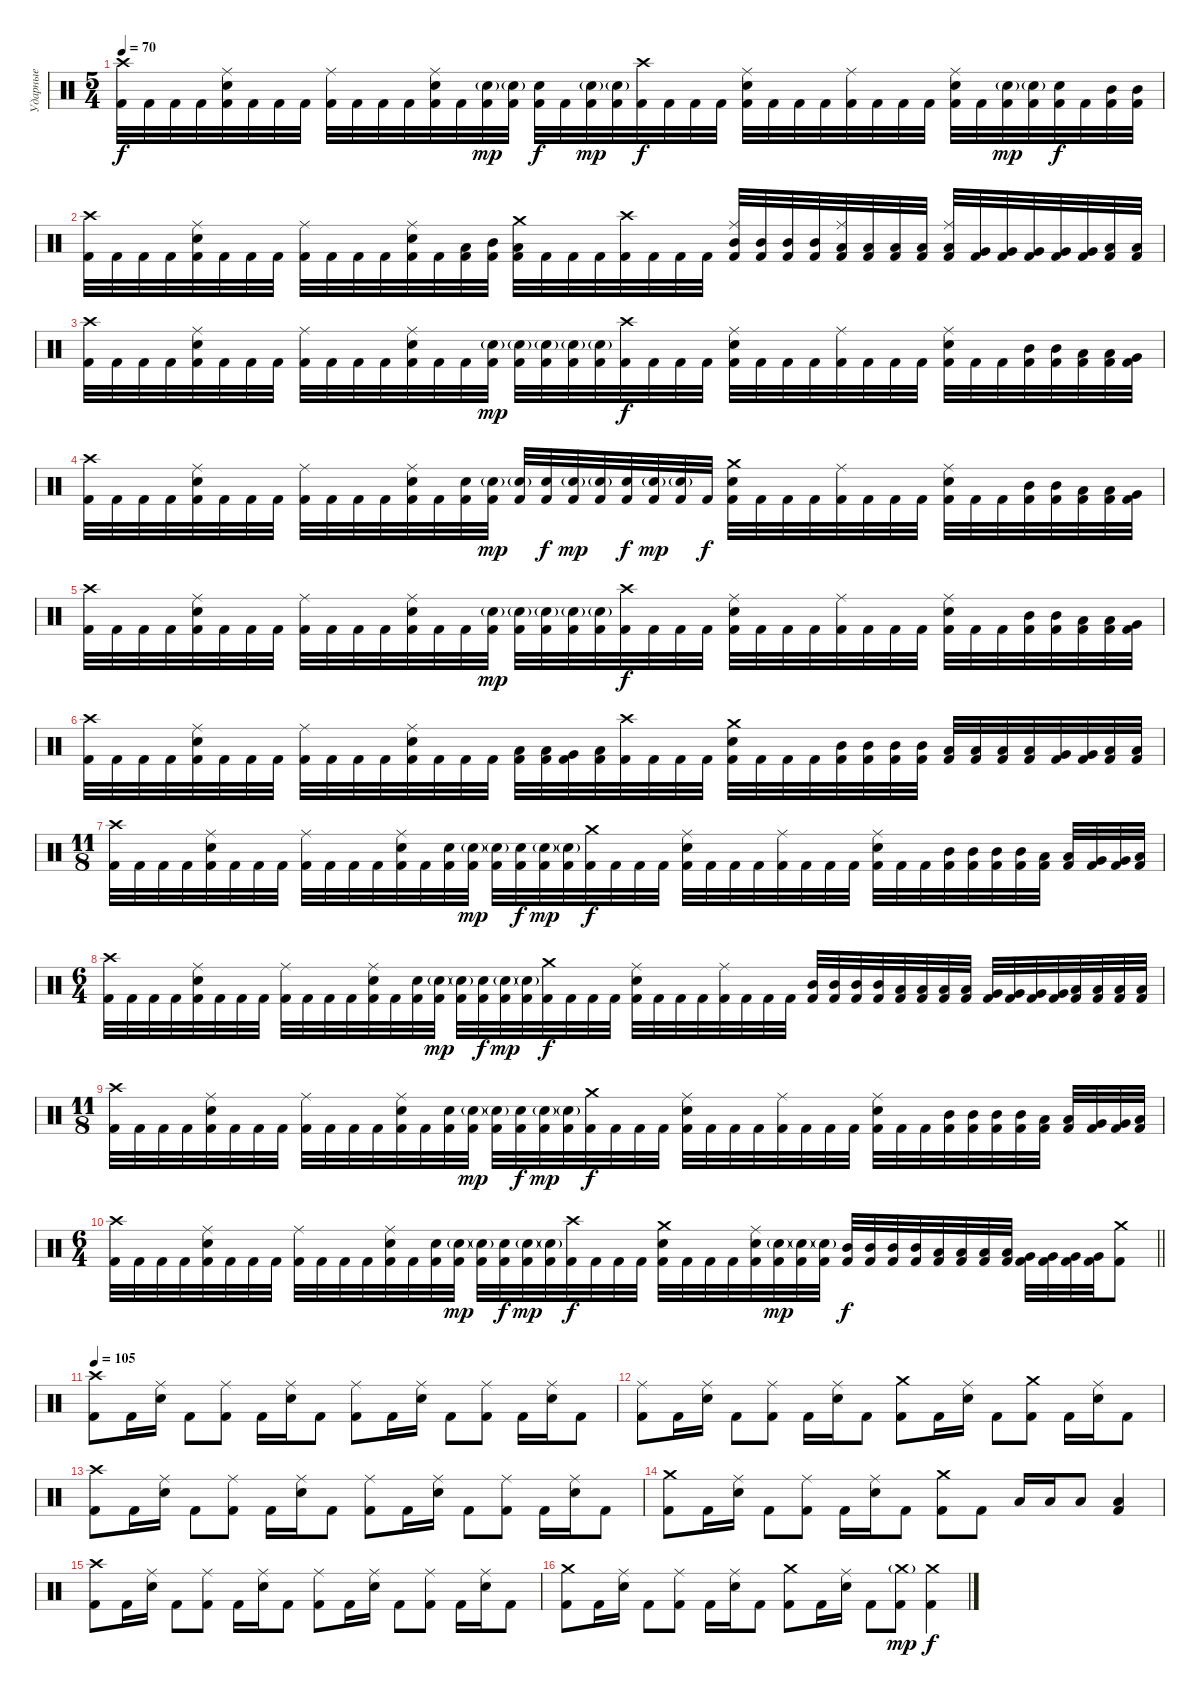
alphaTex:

\track ("Ударные" "Ударные") {instrument percussion}
\staff {score}
\articulation defaults
\ts (5 4)
\tempo 70
\clef neutral
\ks c
("Kick (hit) 2" "Crash high (hit)").32{dy f} "Kick (hit) 2".32 "Kick (hit) 2".32 "Kick (hit) 2".32 ("Kick (hit) 2" "Electric Snare (hit)" "Ride (middle)").32 "Kick (hit) 2".32 "Kick (hit) 2".32 "Kick (hit) 2".32 ("Kick (hit) 2" "Ride (middle)").32 "Kick (hit) 2".32 "Kick (hit) 2".32 "Kick (hit) 2".32 ("Kick (hit) 2" "Electric Snare (hit)" "Ride (middle)").32 "Kick (hit) 2".32 ("Kick (hit) 2" "Electric Snare (hit)"{g}).32{dy mp} ("Kick (hit) 2" "Electric Snare (hit)"{g}).32 ("Kick (hit) 2" "Electric Snare (hit)").32{dy f} "Kick (hit) 2".32 ("Kick (hit) 2" "Electric Snare (hit)"{g}).32{dy mp} ("Kick (hit) 2" "Electric Snare (hit)"{g}).32 ("Kick (hit) 2" "Crash high (hit)").32{dy f} "Kick (hit) 2".32 "Kick (hit) 2".32 "Kick (hit) 2".32 ("Kick (hit) 2" "Electric Snare (hit)" "Ride (middle)").32 "Kick (hit) 2".32 "Kick (hit) 2".32 "Kick (hit) 2".32 ("Kick (hit) 2" "Ride (middle)").32 "Kick (hit) 2".32 "Kick (hit) 2".32 "Kick (hit) 2".32 ("Kick (hit) 2" "Electric Snare (hit)" "Ride (middle)").32 "Kick (hit) 2".32 ("Kick (hit) 2" "Electric Snare (hit)"{g}).32{dy mp} ("Kick (hit) 2" "Electric Snare (hit)"{g}).32 ("Kick (hit) 2" "Electric Snare (hit)").32{dy f} "Kick (hit) 2".32 ("Kick (hit) 2" "Mid Tom (hit)").32 ("Kick (hit) 2" "Mid Tom (hit)").32 |
("Kick (hit) 2" "Crash high (hit)").32 "Kick (hit) 2".32 "Kick (hit) 2".32 "Kick (hit) 2".32 ("Kick (hit) 2" "Electric Snare (hit)" "Ride (middle)").32 "Kick (hit) 2".32 "Kick (hit) 2".32 "Kick (hit) 2".32 ("Kick (hit) 2" "Ride (middle)").32 "Kick (hit) 2".32 "Kick (hit) 2".32 "Kick (hit) 2".32 ("Kick (hit) 2" "Electric Snare (hit)" "Ride (middle)").32 "Kick (hit) 2".32 ("Kick (hit) 2" "Low Tom (hit)").32 ("Kick (hit) 2" "Mid Tom (hit)").32 ("Kick (hit) 2" "Low Tom (hit)" "Crash medium (hit)").32 "Kick (hit) 2".32 "Kick (hit) 2".32 "Kick (hit) 2".32 ("Kick (hit) 2" "Crash high (hit)").32 "Kick (hit) 2".32 "Kick (hit) 2".32 "Kick (hit) 2".32 ("Kick (hit) 2" "Mid Tom (hit)" "Ride (middle)").32 ("Kick (hit) 2" "Mid Tom (hit)").32 ("Kick (hit) 2" "Mid Tom (hit)").32 ("Kick (hit) 2" "Mid Tom (hit)").32 ("Kick (hit) 2" "Low Tom (hit)" "Ride (middle)").32 ("Kick (hit) 2" "Low Tom (hit)").32 ("Kick (hit) 2" "Low Tom (hit)").32 ("Kick (hit) 2" "Low Tom (hit)").32 ("Kick (hit) 2" "Low Tom (hit)" "Ride (middle)").32 ("Kick (hit) 2" "Very Low Tom (hit)").32 ("Kick (hit) 2" "Very Low Tom (hit)").32 ("Kick (hit) 2" "Very Low Tom (hit)").32 ("Kick (hit) 2" "Very Low Tom (hit)").32 ("Kick (hit) 2" "Very Low Tom (hit)").32 ("Kick (hit) 2" "Low Floor Tom (hit)").32 ("Kick (hit) 2" "Low Floor Tom (hit)").32 |
("Kick (hit) 2" "Crash high (hit)").32 "Kick (hit) 2".32 "Kick (hit) 2".32 "Kick (hit) 2".32 ("Kick (hit) 2" "Electric Snare (hit)" "Ride (middle)").32 "Kick (hit) 2".32 "Kick (hit) 2".32 "Kick (hit) 2".32 ("Kick (hit) 2" "Ride (middle)").32 "Kick (hit) 2".32 "Kick (hit) 2".32 "Kick (hit) 2".32 ("Kick (hit) 2" "Electric Snare (hit)" "Ride (middle)").32 "Kick (hit) 2".32 "Kick (hit) 2".32 ("Kick (hit) 2" "Electric Snare (hit)"{g}).32{dy mp} ("Kick (hit) 2" "Electric Snare (hit)"{g}).32 ("Kick (hit) 2" "Electric Snare (hit)"{g}).32 ("Kick (hit) 2" "Electric Snare (hit)"{g}).32 ("Kick (hit) 2" "Electric Snare (hit)"{g}).32 ("Kick (hit) 2" "Crash high (hit)").32{dy f} "Kick (hit) 2".32 "Kick (hit) 2".32 "Kick (hit) 2".32 ("Kick (hit) 2" "Electric Snare (hit)" "Ride (middle)").32 "Kick (hit) 2".32 "Kick (hit) 2".32 "Kick (hit) 2".32 ("Kick (hit) 2" "Ride (middle)").32 "Kick (hit) 2".32 "Kick (hit) 2".32 "Kick (hit) 2".32 ("Kick (hit) 2" "Electric Snare (hit)" "Ride (middle)").32 "Kick (hit) 2".32 "Kick (hit) 2".32 ("Kick (hit) 2" "Mid Tom (hit)").32 ("Kick (hit) 2" "Mid Tom (hit)").32 ("Kick (hit) 2" "Low Tom (hit)").32 ("Kick (hit) 2" "Low Tom (hit)").32 ("Kick (hit) 2" "Very Low Tom (hit)").32 |
("Kick (hit) 2" "Crash high (hit)").32 "Kick (hit) 2".32 "Kick (hit) 2".32 "Kick (hit) 2".32 ("Kick (hit) 2" "Electric Snare (hit)" "Ride (middle)").32 "Kick (hit) 2".32 "Kick (hit) 2".32 "Kick (hit) 2".32 ("Kick (hit) 2" "Ride (middle)").32 "Kick (hit) 2".32 "Kick (hit) 2".32 "Kick (hit) 2".32 ("Kick (hit) 2" "Electric Snare (hit)" "Ride (middle)").32 "Kick (hit) 2".32 ("Kick (hit) 2" "Electric Snare (hit)").32 ("Kick (hit) 2" "Electric Snare (hit)"{g}).32{dy mp} ("Kick (hit) 2" "Electric Snare (hit)"{g}).32 ("Kick (hit) 2" "Electric Snare (hit)").32{dy f} ("Kick (hit) 2" "Electric Snare (hit)"{g}).32{dy mp} ("Kick (hit) 2" "Electric Snare (hit)"{g}).32 ("Kick (hit) 2" "Electric Snare (hit)").32{dy f} ("Kick (hit) 2" "Electric Snare (hit)"{g}).32{dy mp} ("Kick (hit) 2" "Electric Snare (hit)"{g}).32 "Kick (hit) 2".32{dy f} ("Kick (hit) 2" "Electric Snare (hit)" "Crash medium (hit)").32 "Kick (hit) 2".32 "Kick (hit) 2".32 "Kick (hit) 2".32 ("Kick (hit) 2" "Ride (middle)").32 "Kick (hit) 2".32 "Kick (hit) 2".32 "Kick (hit) 2".32 ("Kick (hit) 2" "Electric Snare (hit)" "Ride (middle)").32 "Kick (hit) 2".32 "Kick (hit) 2".32 ("Kick (hit) 2" "Mid Tom (hit)").32 ("Kick (hit) 2" "Mid Tom (hit)").32 ("Kick (hit) 2" "Low Tom (hit)").32 ("Kick (hit) 2" "Low Tom (hit)").32 ("Kick (hit) 2" "Very Low Tom (hit)").32 |
("Kick (hit) 2" "Crash high (hit)").32 "Kick (hit) 2".32 "Kick (hit) 2".32 "Kick (hit) 2".32 ("Kick (hit) 2" "Electric Snare (hit)" "Ride (middle)").32 "Kick (hit) 2".32 "Kick (hit) 2".32 "Kick (hit) 2".32 ("Kick (hit) 2" "Ride (middle)").32 "Kick (hit) 2".32 "Kick (hit) 2".32 "Kick (hit) 2".32 ("Kick (hit) 2" "Electric Snare (hit)" "Ride (middle)").32 "Kick (hit) 2".32 "Kick (hit) 2".32 ("Kick (hit) 2" "Electric Snare (hit)"{g}).32{dy mp} ("Kick (hit) 2" "Electric Snare (hit)"{g}).32 ("Kick (hit) 2" "Electric Snare (hit)"{g}).32 ("Kick (hit) 2" "Electric Snare (hit)"{g}).32 ("Kick (hit) 2" "Electric Snare (hit)"{g}).32 ("Kick (hit) 2" "Crash high (hit)").32{dy f} "Kick (hit) 2".32 "Kick (hit) 2".32 "Kick (hit) 2".32 ("Kick (hit) 2" "Electric Snare (hit)" "Ride (middle)").32 "Kick (hit) 2".32 "Kick (hit) 2".32 "Kick (hit) 2".32 ("Kick (hit) 2" "Ride (middle)").32 "Kick (hit) 2".32 "Kick (hit) 2".32 "Kick (hit) 2".32 ("Kick (hit) 2" "Electric Snare (hit)" "Ride (middle)").32 "Kick (hit) 2".32 "Kick (hit) 2".32 ("Kick (hit) 2" "Mid Tom (hit)").32 ("Kick (hit) 2" "Mid Tom (hit)").32 ("Kick (hit) 2" "Low Tom (hit)").32 ("Kick (hit) 2" "Low Tom (hit)").32 ("Kick (hit) 2" "Very Low Tom (hit)").32 |
("Kick (hit) 2" "Crash high (hit)").32 "Kick (hit) 2".32 "Kick (hit) 2".32 "Kick (hit) 2".32 ("Kick (hit) 2" "Electric Snare (hit)" "Ride (middle)").32 "Kick (hit) 2".32 "Kick (hit) 2".32 "Kick (hit) 2".32 ("Kick (hit) 2" "Ride (middle)").32 "Kick (hit) 2".32 "Kick (hit) 2".32 "Kick (hit) 2".32 ("Kick (hit) 2" "Electric Snare (hit)" "Ride (middle)").32 "Kick (hit) 2".32 "Kick (hit) 2".32 "Kick (hit) 2".32 ("Kick (hit) 2" "Low Tom (hit)").32 ("Kick (hit) 2" "Low Tom (hit)").32 ("Kick (hit) 2" "Very Low Tom (hit)").32 ("Kick (hit) 2" "Low Floor Tom (hit)").32 ("Kick (hit) 2" "Crash high (hit)").32 "Kick (hit) 2".32 "Kick (hit) 2".32 "Kick (hit) 2".32 ("Kick (hit) 2" "Electric Snare (hit)" "Crash medium (hit)").32 "Kick (hit) 2".32 "Kick (hit) 2".32 "Kick (hit) 2".32 ("Kick (hit) 2" "Mid Tom (hit)").32 ("Kick (hit) 2" "Mid Tom (hit)").32 ("Kick (hit) 2" "Mid Tom (hit)").32 ("Kick (hit) 2" "Mid Tom (hit)").32 ("Kick (hit) 2" "Low Tom (hit)").32 ("Kick (hit) 2" "Low Tom (hit)").32 ("Kick (hit) 2" "Low Tom (hit)").32 ("Kick (hit) 2" "Low Tom (hit)").32 ("Kick (hit) 2" "Very Low Tom (hit)").32 ("Kick (hit) 2" "Very Low Tom (hit)").32 ("Kick (hit) 2" "Low Floor Tom (hit)").32 ("Kick (hit) 2" "Low Floor Tom (hit)").32 |
\ts (11 8)
("Kick (hit) 2" "Crash high (hit)").32 "Kick (hit) 2".32 "Kick (hit) 2".32 "Kick (hit) 2".32 ("Kick (hit) 2" "Electric Snare (hit)" "Ride (middle)").32 "Kick (hit) 2".32 "Kick (hit) 2".32 "Kick (hit) 2".32 ("Kick (hit) 2" "Ride (middle)").32 "Kick (hit) 2".32 "Kick (hit) 2".32 "Kick (hit) 2".32 ("Kick (hit) 2" "Electric Snare (hit)" "Ride (middle)").32 "Kick (hit) 2".32 ("Kick (hit) 2" "Electric Snare (hit)").32 ("Kick (hit) 2" "Electric Snare (hit)"{g}).32{dy mp} ("Kick (hit) 2" "Electric Snare (hit)"{g}).32 ("Kick (hit) 2" "Electric Snare (hit)").32{dy f} ("Kick (hit) 2" "Electric Snare (hit)"{g}).32{dy mp} ("Kick (hit) 2" "Electric Snare (hit)"{g}).32 ("Kick (hit) 2" "Crash medium (hit)").32{dy f} "Kick (hit) 2".32 "Kick (hit) 2".32 "Kick (hit) 2".32 ("Kick (hit) 2" "Electric Snare (hit)" "Ride (middle)").32 "Kick (hit) 2".32 "Kick (hit) 2".32 "Kick (hit) 2".32 ("Kick (hit) 2" "Ride (middle)").32 "Kick (hit) 2".32 "Kick (hit) 2".32 "Kick (hit) 2".32 ("Kick (hit) 2" "Electric Snare (hit)" "Ride (middle)").32 "Kick (hit) 2".32 "Kick (hit) 2".32 ("Kick (hit) 2" "Mid Tom (hit)").32 ("Kick (hit) 2" "Mid Tom (hit)").32 ("Kick (hit) 2" "Mid Tom (hit)").32 ("Kick (hit) 2" "Mid Tom (hit)").32 ("Kick (hit) 2" "Low Tom (hit)").32 ("Kick (hit) 2" "Low Tom (hit)").32 ("Kick (hit) 2" "Very Low Tom (hit)").32 ("Kick (hit) 2" "Very Low Tom (hit)").32 ("Kick (hit) 2" "Low Floor Tom (hit)").32 |
\ts (6 4)
("Kick (hit) 2" "Crash high (hit)").32 "Kick (hit) 2".32 "Kick (hit) 2".32 "Kick (hit) 2".32 ("Kick (hit) 2" "Electric Snare (hit)" "Ride (middle)").32 "Kick (hit) 2".32 "Kick (hit) 2".32 "Kick (hit) 2".32 ("Kick (hit) 2" "Ride (middle)").32 "Kick (hit) 2".32 "Kick (hit) 2".32 "Kick (hit) 2".32 ("Kick (hit) 2" "Electric Snare (hit)" "Ride (middle)").32 "Kick (hit) 2".32 ("Kick (hit) 2" "Electric Snare (hit)").32 ("Kick (hit) 2" "Electric Snare (hit)"{g}).32{dy mp} ("Kick (hit) 2" "Electric Snare (hit)"{g}).32 ("Kick (hit) 2" "Electric Snare (hit)").32{dy f} ("Kick (hit) 2" "Electric Snare (hit)"{g}).32{dy mp} ("Kick (hit) 2" "Electric Snare (hit)"{g}).32 ("Kick (hit) 2" "Crash medium (hit)").32{dy f} "Kick (hit) 2".32 "Kick (hit) 2".32 "Kick (hit) 2".32 ("Kick (hit) 2" "Electric Snare (hit)" "Ride (middle)").32 "Kick (hit) 2".32 "Kick (hit) 2".32 "Kick (hit) 2".32 ("Kick (hit) 2" "Ride (middle)").32 "Kick (hit) 2".32 "Kick (hit) 2".32 "Kick (hit) 2".32 ("Kick (hit) 2" "Mid Tom (hit)").32 ("Kick (hit) 2" "Mid Tom (hit)").32 ("Kick (hit) 2" "Mid Tom (hit)").32 ("Kick (hit) 2" "Mid Tom (hit)").32 ("Kick (hit) 2" "Low Tom (hit)").32 ("Kick (hit) 2" "Low Tom (hit)").32 ("Kick (hit) 2" "Low Tom (hit)").32 ("Kick (hit) 2" "Low Tom (hit)").32 ("Kick (hit) 2" "Very Low Tom (hit)").32 ("Kick (hit) 2" "Very Low Tom (hit)").32 ("Kick (hit) 2" "Very Low Tom (hit)").32 ("Kick (hit) 2" "Very Low Tom (hit)").32 ("Kick (hit) 2" "Low Floor Tom (hit)").32 ("Kick (hit) 2" "Low Floor Tom (hit)").32 ("Kick (hit) 2" "Low Floor Tom (hit)").32 ("Kick (hit) 2" "Low Floor Tom (hit)").32 |
\ts (11 8)
("Kick (hit) 2" "Crash high (hit)").32 "Kick (hit) 2".32 "Kick (hit) 2".32 "Kick (hit) 2".32 ("Kick (hit) 2" "Electric Snare (hit)" "Ride (middle)").32 "Kick (hit) 2".32 "Kick (hit) 2".32 "Kick (hit) 2".32 ("Kick (hit) 2" "Ride (middle)").32 "Kick (hit) 2".32 "Kick (hit) 2".32 "Kick (hit) 2".32 ("Kick (hit) 2" "Electric Snare (hit)" "Ride (middle)").32 "Kick (hit) 2".32 ("Kick (hit) 2" "Electric Snare (hit)").32 ("Kick (hit) 2" "Electric Snare (hit)"{g}).32{dy mp} ("Kick (hit) 2" "Electric Snare (hit)"{g}).32 ("Kick (hit) 2" "Electric Snare (hit)").32{dy f} ("Kick (hit) 2" "Electric Snare (hit)"{g}).32{dy mp} ("Kick (hit) 2" "Electric Snare (hit)"{g}).32 ("Kick (hit) 2" "Crash medium (hit)").32{dy f} "Kick (hit) 2".32 "Kick (hit) 2".32 "Kick (hit) 2".32 ("Kick (hit) 2" "Electric Snare (hit)" "Ride (middle)").32 "Kick (hit) 2".32 "Kick (hit) 2".32 "Kick (hit) 2".32 ("Kick (hit) 2" "Ride (middle)").32 "Kick (hit) 2".32 "Kick (hit) 2".32 "Kick (hit) 2".32 ("Kick (hit) 2" "Electric Snare (hit)" "Ride (middle)").32 "Kick (hit) 2".32 "Kick (hit) 2".32 ("Kick (hit) 2" "Mid Tom (hit)").32 ("Kick (hit) 2" "Mid Tom (hit)").32 ("Kick (hit) 2" "Mid Tom (hit)").32 ("Kick (hit) 2" "Mid Tom (hit)").32 ("Kick (hit) 2" "Low Tom (hit)").32 ("Kick (hit) 2" "Low Tom (hit)").32 ("Kick (hit) 2" "Very Low Tom (hit)").32 ("Kick (hit) 2" "Very Low Tom (hit)").32 ("Kick (hit) 2" "Low Floor Tom (hit)").32 |
\ts (6 4)
\barLineRight lightlight
("Kick (hit) 2" "Crash high (hit)").32 "Kick (hit) 2".32 "Kick (hit) 2".32 "Kick (hit) 2".32 ("Kick (hit) 2" "Electric Snare (hit)" "Ride (middle)").32 "Kick (hit) 2".32 "Kick (hit) 2".32 "Kick (hit) 2".32 ("Kick (hit) 2" "Ride (middle)").32 "Kick (hit) 2".32 "Kick (hit) 2".32 "Kick (hit) 2".32 ("Kick (hit) 2" "Electric Snare (hit)" "Ride (middle)").32 "Kick (hit) 2".32 ("Kick (hit) 2" "Electric Snare (hit)").32 ("Kick (hit) 2" "Electric Snare (hit)"{g}).32{dy mp} ("Kick (hit) 2" "Electric Snare (hit)"{g}).32 ("Kick (hit) 2" "Electric Snare (hit)").32{dy f} ("Kick (hit) 2" "Electric Snare (hit)"{g}).32{dy mp} ("Kick (hit) 2" "Electric Snare (hit)"{g}).32 ("Kick (hit) 2" "Crash high (hit)").32{dy f} "Kick (hit) 2".32 "Kick (hit) 2".32 "Kick (hit) 2".32 ("Kick (hit) 2" "Electric Snare (hit)" "Crash medium (hit)").32 "Kick (hit) 2".32 "Kick (hit) 2".32 "Kick (hit) 2".32 ("Kick (hit) 2" "Electric Snare (hit)" "Ride (middle)").32 ("Kick (hit) 2" "Electric Snare (hit)"{g}).32{dy mp} ("Kick (hit) 2" "Electric Snare (hit)"{g}).32 ("Kick (hit) 2" "Electric Snare (hit)"{g}).32 ("Kick (hit) 2" "Mid Tom (hit)").32{dy f} ("Kick (hit) 2" "Mid Tom (hit)").32 ("Kick (hit) 2" "Mid Tom (hit)").32 ("Kick (hit) 2" "Mid Tom (hit)").32 ("Kick (hit) 2" "Low Tom (hit)").32 ("Kick (hit) 2" "Low Tom (hit)").32 ("Kick (hit) 2" "Low Tom (hit)").32 ("Kick (hit) 2" "Low Tom (hit)").32 ("Kick (hit) 2" "Very Low Tom (hit)").32 ("Kick (hit) 2" "Very Low Tom (hit)").32 ("Kick (hit) 2" "Very Low Tom (hit)").32 ("Kick (hit) 2" "Very Low Tom (hit)").32 ("Kick (hit) 2" "Crash medium (hit)").8 |
\section ("" "")
\tempo 105
("Kick (hit) 2" "Crash high (hit)").8 "Kick (hit) 2".16 ("Electric Snare (hit)" "Ride (middle)").16 "Kick (hit) 2".8 ("Kick (hit) 2" "Ride (middle)").8 "Kick (hit) 2".16 ("Electric Snare (hit)" "Ride (middle)").16 "Kick (hit) 2".8 ("Kick (hit) 2" "Ride (middle)").8 "Kick (hit) 2".16 ("Electric Snare (hit)" "Ride (middle)").16 "Kick (hit) 2".8 ("Kick (hit) 2" "Ride (middle)").8 "Kick (hit) 2".16 ("Electric Snare (hit)" "Ride (middle)").16 "Kick (hit) 2".8 |
("Kick (hit) 2" "Ride (middle)").8 "Kick (hit) 2".16 ("Electric Snare (hit)" "Ride (middle)").16 "Kick (hit) 2".8 ("Kick (hit) 2" "Ride (middle)").8 "Kick (hit) 2".16 ("Electric Snare (hit)" "Ride (middle)").16 "Kick (hit) 2".8 ("Kick (hit) 2" "Crash medium (hit)").8 "Kick (hit) 2".16 ("Electric Snare (hit)" "Ride (middle)").16 "Kick (hit) 2".8 ("Kick (hit) 2" "Crash medium (hit)").8 "Kick (hit) 2".16 ("Electric Snare (hit)" "Ride (middle)").16 "Kick (hit) 2".8 |
("Kick (hit) 2" "Crash high (hit)").8 "Kick (hit) 2".16 ("Electric Snare (hit)" "Ride (middle)").16 "Kick (hit) 2".8 ("Kick (hit) 2" "Ride (middle)").8 "Kick (hit) 2".16 ("Electric Snare (hit)" "Ride (middle)").16 "Kick (hit) 2".8 ("Kick (hit) 2" "Ride (middle)").8 "Kick (hit) 2".16 ("Electric Snare (hit)" "Ride (middle)").16 "Kick (hit) 2".8 ("Kick (hit) 2" "Ride (middle)").8 "Kick (hit) 2".16 ("Electric Snare (hit)" "Ride (middle)").16 "Kick (hit) 2".8 |
("Kick (hit) 2" "Crash medium (hit)").8 "Kick (hit) 2".16 ("Electric Snare (hit)" "Ride (middle)").16 "Kick (hit) 2".8 ("Kick (hit) 2" "Ride (middle)").8 "Kick (hit) 2".16 ("Electric Snare (hit)" "Ride (middle)").16 "Kick (hit) 2".8 ("Kick (hit) 2" "Crash medium (hit)").8 "Kick (hit) 2".8 "Low Tom (hit)".16 "Low Tom (hit)".16 "Low Tom (hit)".8 ("Low Tom (hit)" "Kick (hit) 2").4 |
("Kick (hit) 2" "Crash high (hit)").8 "Kick (hit) 2".16 ("Electric Snare (hit)" "Ride (middle)").16 "Kick (hit) 2".8 ("Kick (hit) 2" "Ride (middle)").8 "Kick (hit) 2".16 ("Electric Snare (hit)" "Ride (middle)").16 "Kick (hit) 2".8 ("Kick (hit) 2" "Ride (middle)").8 "Kick (hit) 2".16 ("Electric Snare (hit)" "Ride (middle)").16 "Kick (hit) 2".8 ("Kick (hit) 2" "Ride (middle)").8 "Kick (hit) 2".16 ("Electric Snare (hit)" "Ride (middle)").16 "Kick (hit) 2".8 |
("Kick (hit) 2" "Crash medium (hit)").8 "Kick (hit) 2".16 ("Electric Snare (hit)" "Ride (middle)").16 "Kick (hit) 2".8 ("Kick (hit) 2" "Ride (middle)").8 "Kick (hit) 2".16 ("Electric Snare (hit)" "Ride (middle)").16 "Kick (hit) 2".8 ("Kick (hit) 2" "Crash medium (hit)").8 "Kick (hit) 2".16 ("Electric Snare (hit)" "Ride (middle)").16 "Kick (hit) 2".8 ("Kick (hit) 2" "Crash medium (hit)"{g}).8{dy mp} ("Kick (hit) 2" "Crash medium (hit)").4{dy f}
